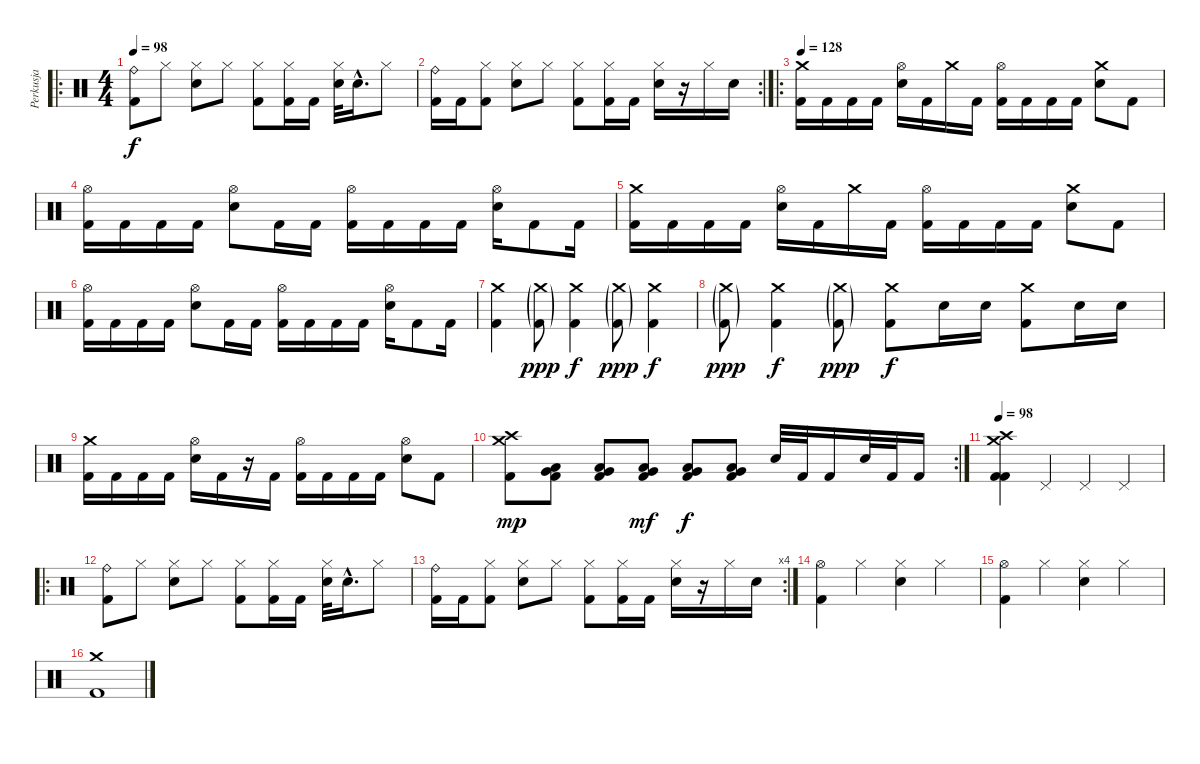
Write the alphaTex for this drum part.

\track ("Perkusja" "Perkusja") {instrument percussion}
\staff {score}
\articulation defaults
\ro
\ts (4 4)
\tempo 98
\clef neutral
\ks c
("Ride (bell)" "Kick (hit) 2").8{dy f} "Hi-Hat (closed)".8 ("Hi-Hat (closed)" "Snare (hit) 2").8 "Hi-Hat (closed)".8 ("Hi-Hat (closed)" "Kick (hit) 2").8 ("Hi-Hat (closed)" "Kick (hit) 2").16 "Kick (hit) 2".16 ("Hi-Hat (closed)" "Snare (hit) 2").32 "Snare (hit) 2"{hac}.16{d} "Hi-Hat (closed)".8 |
\rc 2
("Ride (bell)" "Kick (hit) 2").16 "Kick (hit) 2".16 ("Hi-Hat (closed)" "Kick (hit) 2").8 ("Hi-Hat (closed)" "Snare (hit) 2").8 "Hi-Hat (closed)".8 ("Hi-Hat (closed)" "Kick (hit) 2").8 ("Hi-Hat (closed)" "Kick (hit) 2").16 "Kick (hit) 2".16 ("Hi-Hat (closed)" "Snare (hit) 2").16 r.16 "Hi-Hat (closed)".16 "Snare (hit) 2".16 |
\ro
\tempo 128
("Crash medium (hit)" "Kick (hit) 2").16 "Kick (hit) 2".16 "Kick (hit) 2".16 "Kick (hit) 2".16 ("Hi-Hat (open)" "Snare (hit) 2").16 "Kick (hit) 2".16 "Crash medium (hit)".16 "Kick (hit) 2".16 ("Hi-Hat (open)" "Kick (hit) 2").16 "Kick (hit) 2".16 "Kick (hit) 2".16 "Kick (hit) 2".16 ("Crash medium (hit)" "Snare (hit) 2").8 "Kick (hit) 2".8 |
("Hi-Hat (open)" "Kick (hit) 2").16 "Kick (hit) 2".16 "Kick (hit) 2".16 "Kick (hit) 2".16 ("Hi-Hat (open)" "Snare (hit) 2").8 "Kick (hit) 2".16 "Kick (hit) 2".16 ("Hi-Hat (open)" "Kick (hit) 2").16 "Kick (hit) 2".16 "Kick (hit) 2".16 "Kick (hit) 2".16 ("Hi-Hat (open)" "Snare (hit) 2").16 "Kick (hit) 2".8 "Kick (hit) 2".16 |
("Crash medium (hit)" "Kick (hit) 2").16 "Kick (hit) 2".16 "Kick (hit) 2".16 "Kick (hit) 2".16 ("Hi-Hat (open)" "Snare (hit) 2").16 "Kick (hit) 2".16 "Crash medium (hit)".16 "Kick (hit) 2".16 ("Hi-Hat (open)" "Kick (hit) 2").16 "Kick (hit) 2".16 "Kick (hit) 2".16 "Kick (hit) 2".16 ("Crash medium (hit)" "Snare (hit) 2").8 "Kick (hit) 2".8 |
("Hi-Hat (open)" "Kick (hit) 2").16 "Kick (hit) 2".16 "Kick (hit) 2".16 "Kick (hit) 2".16 ("Hi-Hat (open)" "Snare (hit) 2").8 "Kick (hit) 2".16 "Kick (hit) 2".16 ("Hi-Hat (open)" "Kick (hit) 2").16 "Kick (hit) 2".16 "Kick (hit) 2".16 "Kick (hit) 2".16 ("Hi-Hat (open)" "Snare (hit) 2").16 "Kick (hit) 2".8 "Kick (hit) 2".16 |
("Crash medium (hit)" "Kick (hit) 2").4 ("Crash medium (hit)"{g} "Kick (hit) 2"{g}).8{dy ppp} ("Crash medium (hit)" "Kick (hit) 2").4{dy f} ("Crash medium (hit)"{g} "Kick (hit) 2"{g}).8{dy ppp} ("Crash medium (hit)" "Kick (hit) 2").4{dy f} |
("Crash medium (hit)"{g} "Kick (hit) 2"{g}).8{dy ppp} ("Crash medium (hit)" "Kick (hit) 2").4{dy f} ("Crash medium (hit)"{g} "Kick (hit) 2"{g}).8{dy ppp} ("Crash medium (hit)" "Kick (hit) 2").8{dy f} "Snare (hit) 2".16 "Snare (hit) 2".16 ("Crash medium (hit)" "Kick (hit) 2").8 "Snare (hit) 2".16 "Snare (hit) 2".16 |
("Crash medium (hit)" "Kick (hit) 2").16 "Kick (hit) 2".16 "Kick (hit) 2".16 "Kick (hit) 2".16 ("Hi-Hat (open)" "Snare (hit) 2").16 "Kick (hit) 2".16 r.16 "Kick (hit) 2".16 ("Hi-Hat (open)" "Kick (hit) 2").16 "Kick (hit) 2".16 "Kick (hit) 2".16 "Kick (hit) 2".16 ("Hi-Hat (open)" "Snare (hit) 2").8 "Kick (hit) 2".8 |
\rc 2
("Crash medium (hit)" "Crash high (hit)" "Kick (hit) 2").8{dy mp} ("Low Tom (hit)" "Very Low Tom (hit)" "Kick (hit) 2").8 ("Low Tom (hit)" "Very Low Tom (hit)" "Kick (hit) 2").8 ("Low Tom (hit)" "Very Low Tom (hit)" "Kick (hit) 2").8{dy mf} ("Low Tom (hit)" "Very Low Tom (hit)" "Kick (hit) 2").8{dy f} ("Low Tom (hit)" "Very Low Tom (hit)" "Kick (hit) 2").8 "Snare (hit) 2".32 "Kick (hit) 2".32 "Kick (hit) 2".16 "Snare (hit) 2".32 "Kick (hit) 2".32 "Kick (hit) 2".16 |
\tempo 98
("Crash medium (hit)" "Crash high (hit)" "Kick (hit) 2" "Kick (hit) 2").4 "Pedal Hi-Hat (hit)".4 "Pedal Hi-Hat (hit)".4 "Pedal Hi-Hat (hit)".4 |
\ro
("Ride (bell)" "Kick (hit) 2").8 "Hi-Hat (closed)".8 ("Hi-Hat (closed)" "Snare (hit) 2").8 "Hi-Hat (closed)".8 ("Hi-Hat (closed)" "Kick (hit) 2").8 ("Hi-Hat (closed)" "Kick (hit) 2").16 "Kick (hit) 2".16 ("Hi-Hat (closed)" "Snare (hit) 2").32 "Snare (hit) 2"{hac}.16{d} "Hi-Hat (closed)".8 |
\rc 4
("Ride (bell)" "Kick (hit) 2").16 "Kick (hit) 2".16 ("Hi-Hat (closed)" "Kick (hit) 2").8 ("Hi-Hat (closed)" "Snare (hit) 2").8 "Hi-Hat (closed)".8 ("Hi-Hat (closed)" "Kick (hit) 2").8 ("Hi-Hat (closed)" "Kick (hit) 2").16 "Kick (hit) 2".16 ("Hi-Hat (closed)" "Snare (hit) 2").16 r.16 "Hi-Hat (closed)".16 "Snare (hit) 2".16 |
("Hi-Hat (open)" "Kick (hit) 2").4 "Hi-Hat (closed)".4 ("Hi-Hat (closed)" "Snare (hit) 2").4 "Hi-Hat (closed)".4 |
("Hi-Hat (open)" "Kick (hit) 2").4 "Hi-Hat (closed)".4 ("Hi-Hat (closed)" "Snare (hit) 2").4 "Hi-Hat (closed)".4 |
("Crash medium (hit)" "Kick (hit) 2").1
